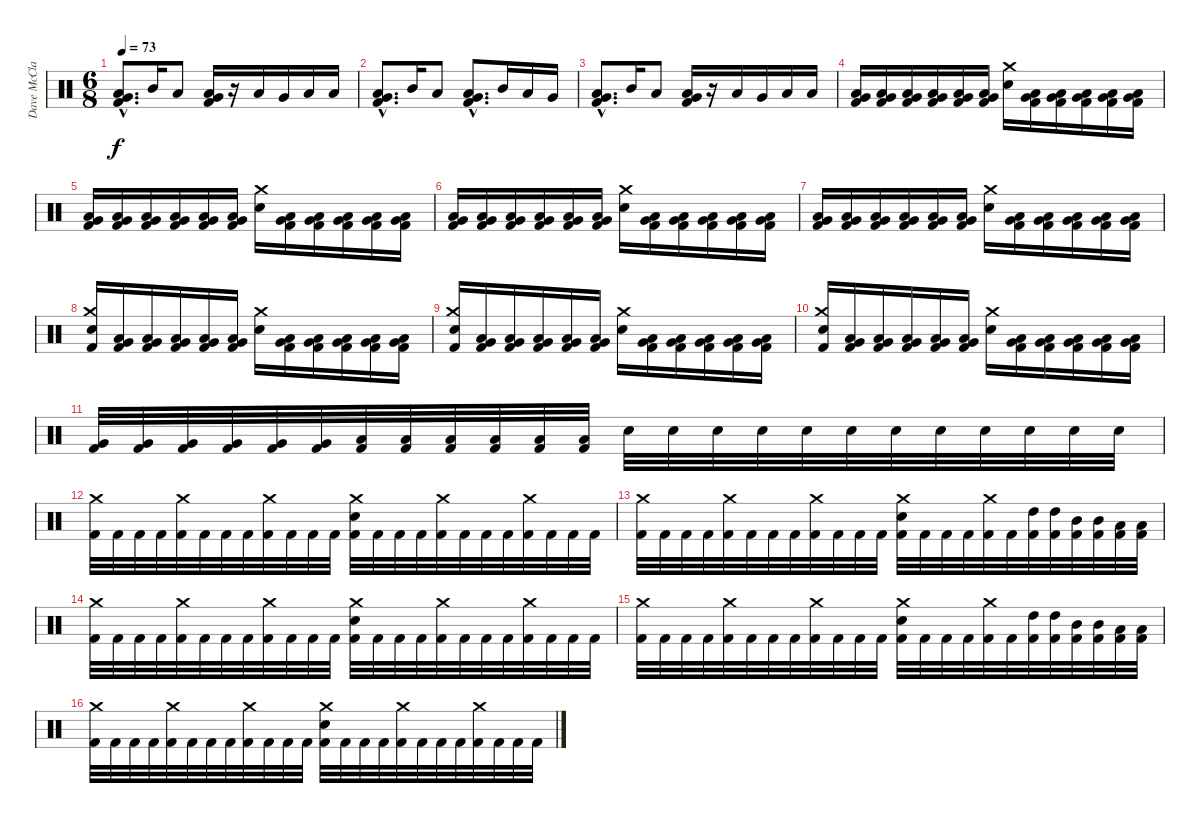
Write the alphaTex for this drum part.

\track ("Dave McClain" "Dave McCla") {instrument percussion}
\staff {score}
\articulation defaults
\ts (6 8)
\tempo 73
\clef neutral
\ks c
("Very Low Tom (hit)"{hac} "Low Floor Tom (hit)"{hac} "Kick (hit) 2"{hac}).8{d dy f} "Mid Tom (hit)".16 "Low Tom (hit)".8 ("Very Low Tom (hit)" "Low Floor Tom (hit)" "Kick (hit) 2").16 r.16 "Low Tom (hit)".16 "Very Low Tom (hit)".16 "Low Floor Tom (hit)".16 "Low Floor Tom (hit)".16 |
("Very Low Tom (hit)"{hac} "Low Floor Tom (hit)"{hac} "Kick (hit) 2"{hac}).8{d} "Mid Tom (hit)".16 "Low Tom (hit)".8 ("Very Low Tom (hit)"{hac} "Low Floor Tom (hit)"{hac} "Kick (hit) 2"{hac}).8{d} "Mid Tom (hit)".16 "Low Tom (hit)".16 "Very Low Tom (hit)".16 |
("Very Low Tom (hit)"{hac} "Low Floor Tom (hit)"{hac} "Kick (hit) 2"{hac}).8{d} "Mid Tom (hit)".16 "Low Tom (hit)".8 ("Very Low Tom (hit)" "Low Floor Tom (hit)" "Kick (hit) 2").16 r.16 "Low Tom (hit)".16 "Very Low Tom (hit)".16 "Low Floor Tom (hit)".16 "Low Floor Tom (hit)".16 |
("Very Low Tom (hit)" "Low Floor Tom (hit)" "Kick (hit) 2").16 ("Very Low Tom (hit)" "Low Floor Tom (hit)" "Kick (hit) 2").16 ("Very Low Tom (hit)" "Low Floor Tom (hit)" "Kick (hit) 2").16 ("Very Low Tom (hit)" "Low Floor Tom (hit)" "Kick (hit) 2").16 ("Very Low Tom (hit)" "Low Floor Tom (hit)" "Kick (hit) 2").16 ("Very Low Tom (hit)" "Low Floor Tom (hit)" "Kick (hit) 2").16 ("Crash medium (hit)" "Snare (hit) 2").16 ("Very Low Tom (hit)" "Low Floor Tom (hit)" "Kick (hit) 2").16 ("Very Low Tom (hit)" "Low Floor Tom (hit)" "Kick (hit) 2").16 ("Very Low Tom (hit)" "Low Floor Tom (hit)" "Kick (hit) 2").16 ("Very Low Tom (hit)" "Low Floor Tom (hit)" "Kick (hit) 2").16 ("Very Low Tom (hit)" "Low Floor Tom (hit)" "Kick (hit) 2").16 |
("Very Low Tom (hit)" "Low Floor Tom (hit)" "Kick (hit) 2").16 ("Very Low Tom (hit)" "Low Floor Tom (hit)" "Kick (hit) 2").16 ("Very Low Tom (hit)" "Low Floor Tom (hit)" "Kick (hit) 2").16 ("Very Low Tom (hit)" "Low Floor Tom (hit)" "Kick (hit) 2").16 ("Very Low Tom (hit)" "Low Floor Tom (hit)" "Kick (hit) 2").16 ("Very Low Tom (hit)" "Low Floor Tom (hit)" "Kick (hit) 2").16 ("Crash medium (hit)" "Snare (hit) 2").16 ("Very Low Tom (hit)" "Low Floor Tom (hit)" "Kick (hit) 2").16 ("Very Low Tom (hit)" "Low Floor Tom (hit)" "Kick (hit) 2").16 ("Very Low Tom (hit)" "Low Floor Tom (hit)" "Kick (hit) 2").16 ("Very Low Tom (hit)" "Low Floor Tom (hit)" "Kick (hit) 2").16 ("Very Low Tom (hit)" "Low Floor Tom (hit)" "Kick (hit) 2").16 |
("Very Low Tom (hit)" "Low Floor Tom (hit)" "Kick (hit) 2").16 ("Very Low Tom (hit)" "Low Floor Tom (hit)" "Kick (hit) 2").16 ("Very Low Tom (hit)" "Low Floor Tom (hit)" "Kick (hit) 2").16 ("Very Low Tom (hit)" "Low Floor Tom (hit)" "Kick (hit) 2").16 ("Very Low Tom (hit)" "Low Floor Tom (hit)" "Kick (hit) 2").16 ("Very Low Tom (hit)" "Low Floor Tom (hit)" "Kick (hit) 2").16 ("Crash medium (hit)" "Snare (hit) 2").16 ("Very Low Tom (hit)" "Low Floor Tom (hit)" "Kick (hit) 2").16 ("Very Low Tom (hit)" "Low Floor Tom (hit)" "Kick (hit) 2").16 ("Very Low Tom (hit)" "Low Floor Tom (hit)" "Kick (hit) 2").16 ("Very Low Tom (hit)" "Low Floor Tom (hit)" "Kick (hit) 2").16 ("Very Low Tom (hit)" "Low Floor Tom (hit)" "Kick (hit) 2").16 |
("Very Low Tom (hit)" "Low Floor Tom (hit)" "Kick (hit) 2").16 ("Very Low Tom (hit)" "Low Floor Tom (hit)" "Kick (hit) 2").16 ("Very Low Tom (hit)" "Low Floor Tom (hit)" "Kick (hit) 2").16 ("Very Low Tom (hit)" "Low Floor Tom (hit)" "Kick (hit) 2").16 ("Very Low Tom (hit)" "Low Floor Tom (hit)" "Kick (hit) 2").16 ("Very Low Tom (hit)" "Low Floor Tom (hit)" "Kick (hit) 2").16 ("Crash medium (hit)" "Snare (hit) 2").16 ("Very Low Tom (hit)" "Low Floor Tom (hit)" "Kick (hit) 2").16 ("Very Low Tom (hit)" "Low Floor Tom (hit)" "Kick (hit) 2").16 ("Very Low Tom (hit)" "Low Floor Tom (hit)" "Kick (hit) 2").16 ("Very Low Tom (hit)" "Low Floor Tom (hit)" "Kick (hit) 2").16 ("Very Low Tom (hit)" "Low Floor Tom (hit)" "Kick (hit) 2").16 |
("Crash medium (hit)" "Snare (hit) 2" "Kick (hit) 2").16 ("Very Low Tom (hit)" "Low Floor Tom (hit)" "Kick (hit) 2").16 ("Very Low Tom (hit)" "Low Floor Tom (hit)" "Kick (hit) 2").16 ("Very Low Tom (hit)" "Low Floor Tom (hit)" "Kick (hit) 2").16 ("Very Low Tom (hit)" "Low Floor Tom (hit)" "Kick (hit) 2").16 ("Very Low Tom (hit)" "Low Floor Tom (hit)" "Kick (hit) 2").16 ("Crash medium (hit)" "Snare (hit) 2").16 ("Very Low Tom (hit)" "Low Floor Tom (hit)" "Kick (hit) 2").16 ("Very Low Tom (hit)" "Low Floor Tom (hit)" "Kick (hit) 2").16 ("Very Low Tom (hit)" "Low Floor Tom (hit)" "Kick (hit) 2").16 ("Very Low Tom (hit)" "Low Floor Tom (hit)" "Kick (hit) 2").16 ("Very Low Tom (hit)" "Low Floor Tom (hit)" "Kick (hit) 2").16 |
("Crash medium (hit)" "Snare (hit) 2" "Kick (hit) 2").16 ("Very Low Tom (hit)" "Low Floor Tom (hit)" "Kick (hit) 2").16 ("Very Low Tom (hit)" "Low Floor Tom (hit)" "Kick (hit) 2").16 ("Very Low Tom (hit)" "Low Floor Tom (hit)" "Kick (hit) 2").16 ("Very Low Tom (hit)" "Low Floor Tom (hit)" "Kick (hit) 2").16 ("Very Low Tom (hit)" "Low Floor Tom (hit)" "Kick (hit) 2").16 ("Crash medium (hit)" "Snare (hit) 2").16 ("Very Low Tom (hit)" "Low Floor Tom (hit)" "Kick (hit) 2").16 ("Very Low Tom (hit)" "Low Floor Tom (hit)" "Kick (hit) 2").16 ("Very Low Tom (hit)" "Low Floor Tom (hit)" "Kick (hit) 2").16 ("Very Low Tom (hit)" "Low Floor Tom (hit)" "Kick (hit) 2").16 ("Very Low Tom (hit)" "Low Floor Tom (hit)" "Kick (hit) 2").16 |
("Crash medium (hit)" "Snare (hit) 2" "Kick (hit) 2").16 ("Very Low Tom (hit)" "Low Floor Tom (hit)" "Kick (hit) 2").16 ("Very Low Tom (hit)" "Low Floor Tom (hit)" "Kick (hit) 2").16 ("Very Low Tom (hit)" "Low Floor Tom (hit)" "Kick (hit) 2").16 ("Very Low Tom (hit)" "Low Floor Tom (hit)" "Kick (hit) 2").16 ("Very Low Tom (hit)" "Low Floor Tom (hit)" "Kick (hit) 2").16 ("Crash medium (hit)" "Snare (hit) 2").16 ("Very Low Tom (hit)" "Low Floor Tom (hit)" "Kick (hit) 2").16 ("Very Low Tom (hit)" "Low Floor Tom (hit)" "Kick (hit) 2").16 ("Very Low Tom (hit)" "Low Floor Tom (hit)" "Kick (hit) 2").16 ("Very Low Tom (hit)" "Low Floor Tom (hit)" "Kick (hit) 2").16 ("Very Low Tom (hit)" "Low Floor Tom (hit)" "Kick (hit) 2").16 |
("Very Low Tom (hit)" "Kick (hit) 2").32 ("Very Low Tom (hit)" "Kick (hit) 2").32 ("Very Low Tom (hit)" "Kick (hit) 2").32 ("Very Low Tom (hit)" "Kick (hit) 2").32 ("Very Low Tom (hit)" "Kick (hit) 2").32 ("Very Low Tom (hit)" "Kick (hit) 2").32 ("Low Floor Tom (hit)" "Kick (hit) 2").32 ("Low Floor Tom (hit)" "Kick (hit) 2").32 ("Low Floor Tom (hit)" "Kick (hit) 2").32 ("Low Floor Tom (hit)" "Kick (hit) 2").32 ("Low Floor Tom (hit)" "Kick (hit) 2").32 ("Low Floor Tom (hit)" "Kick (hit) 2").32 "Snare (hit) 2".32 "Snare (hit) 2".32 "Snare (hit) 2".32 "Snare (hit) 2".32 "Snare (hit) 2".32 "Snare (hit) 2".32 "Snare (hit) 2".32 "Snare (hit) 2".32 "Snare (hit) 2".32 "Snare (hit) 2".32 "Snare (hit) 2".32 "Snare (hit) 2".32 |
("Crash medium (hit)" "Kick (hit) 2").32 "Kick (hit) 2".32 "Kick (hit) 2".32 "Kick (hit) 2".32 ("Crash medium (hit)" "Kick (hit) 2").32 "Kick (hit) 2".32 "Kick (hit) 2".32 "Kick (hit) 2".32 ("Crash medium (hit)" "Kick (hit) 2").32 "Kick (hit) 2".32 "Kick (hit) 2".32 "Kick (hit) 2".32 ("Crash medium (hit)" "Snare (hit) 2" "Kick (hit) 2").32 "Kick (hit) 2".32 "Kick (hit) 2".32 "Kick (hit) 2".32 ("Crash medium (hit)" "Kick (hit) 2").32 "Kick (hit) 2".32 "Kick (hit) 2".32 "Kick (hit) 2".32 ("Crash medium (hit)" "Kick (hit) 2").32 "Kick (hit) 2".32 "Kick (hit) 2".32 "Kick (hit) 2".32 |
("Crash medium (hit)" "Kick (hit) 2").32 "Kick (hit) 2".32 "Kick (hit) 2".32 "Kick (hit) 2".32 ("Crash medium (hit)" "Kick (hit) 2").32 "Kick (hit) 2".32 "Kick (hit) 2".32 "Kick (hit) 2".32 ("Crash medium (hit)" "Kick (hit) 2").32 "Kick (hit) 2".32 "Kick (hit) 2".32 "Kick (hit) 2".32 ("Crash medium (hit)" "Snare (hit) 2" "Kick (hit) 2").32 "Kick (hit) 2".32 "Kick (hit) 2".32 "Kick (hit) 2".32 ("Crash medium (hit)" "Kick (hit) 2").32 "Kick (hit) 2".32 ("High Tom (hit)" "Kick (hit) 2").32 ("High Tom (hit)" "Kick (hit) 2").32 ("Mid Tom (hit)" "Kick (hit) 2").32 ("Mid Tom (hit)" "Kick (hit) 2").32 ("Low Tom (hit)" "Kick (hit) 2").32 ("Low Tom (hit)" "Kick (hit) 2").32 |
("Crash medium (hit)" "Kick (hit) 2").32 "Kick (hit) 2".32 "Kick (hit) 2".32 "Kick (hit) 2".32 ("Crash medium (hit)" "Kick (hit) 2").32 "Kick (hit) 2".32 "Kick (hit) 2".32 "Kick (hit) 2".32 ("Crash medium (hit)" "Kick (hit) 2").32 "Kick (hit) 2".32 "Kick (hit) 2".32 "Kick (hit) 2".32 ("Crash medium (hit)" "Snare (hit) 2" "Kick (hit) 2").32 "Kick (hit) 2".32 "Kick (hit) 2".32 "Kick (hit) 2".32 ("Crash medium (hit)" "Kick (hit) 2").32 "Kick (hit) 2".32 "Kick (hit) 2".32 "Kick (hit) 2".32 ("Crash medium (hit)" "Kick (hit) 2").32 "Kick (hit) 2".32 "Kick (hit) 2".32 "Kick (hit) 2".32 |
("Crash medium (hit)" "Kick (hit) 2").32 "Kick (hit) 2".32 "Kick (hit) 2".32 "Kick (hit) 2".32 ("Crash medium (hit)" "Kick (hit) 2").32 "Kick (hit) 2".32 "Kick (hit) 2".32 "Kick (hit) 2".32 ("Crash medium (hit)" "Kick (hit) 2").32 "Kick (hit) 2".32 "Kick (hit) 2".32 "Kick (hit) 2".32 ("Crash medium (hit)" "Snare (hit) 2" "Kick (hit) 2").32 "Kick (hit) 2".32 "Kick (hit) 2".32 "Kick (hit) 2".32 ("Crash medium (hit)" "Kick (hit) 2").32 "Kick (hit) 2".32 ("High Tom (hit)" "Kick (hit) 2").32 ("High Tom (hit)" "Kick (hit) 2").32 ("Mid Tom (hit)" "Kick (hit) 2").32 ("Mid Tom (hit)" "Kick (hit) 2").32 ("Low Tom (hit)" "Kick (hit) 2").32 ("Low Tom (hit)" "Kick (hit) 2").32 |
("Crash medium (hit)" "Kick (hit) 2").32 "Kick (hit) 2".32 "Kick (hit) 2".32 "Kick (hit) 2".32 ("Crash medium (hit)" "Kick (hit) 2").32 "Kick (hit) 2".32 "Kick (hit) 2".32 "Kick (hit) 2".32 ("Crash medium (hit)" "Kick (hit) 2").32 "Kick (hit) 2".32 "Kick (hit) 2".32 "Kick (hit) 2".32 ("Crash medium (hit)" "Snare (hit) 2" "Kick (hit) 2").32 "Kick (hit) 2".32 "Kick (hit) 2".32 "Kick (hit) 2".32 ("Crash medium (hit)" "Kick (hit) 2").32 "Kick (hit) 2".32 "Kick (hit) 2".32 "Kick (hit) 2".32 ("Crash medium (hit)" "Kick (hit) 2").32 "Kick (hit) 2".32 "Kick (hit) 2".32 "Kick (hit) 2".32
